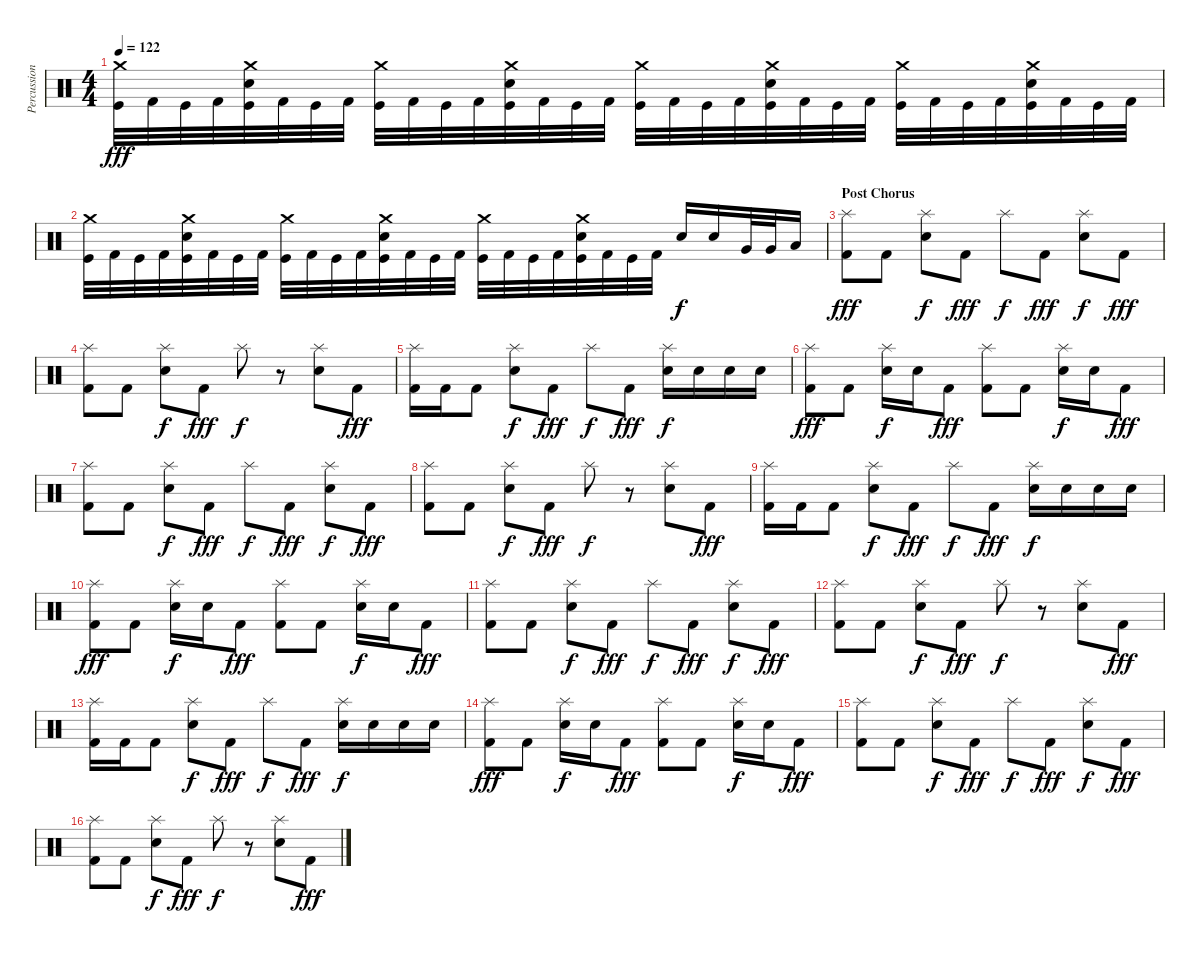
\track ("Percussion" "Percussion") {instrument percussion}
\staff {score}
\articulation defaults
\ts (4 4)
\tempo 122
\clef neutral
\ks c
("Crash medium (hit)" "Kick (hit)").32{dy fff} "Kick (hit) 2".32 "Kick (hit)".32 "Kick (hit) 2".32 ("Crash medium (hit)" "Snare (hit) 2" "Kick (hit)").32 "Kick (hit) 2".32 "Kick (hit)".32 "Kick (hit) 2".32 ("Crash medium (hit)" "Kick (hit)").32 "Kick (hit) 2".32 "Kick (hit)".32 "Kick (hit) 2".32 ("Crash medium (hit)" "Snare (hit) 2" "Kick (hit)").32 "Kick (hit) 2".32 "Kick (hit)".32 "Kick (hit) 2".32 ("Crash medium (hit)" "Kick (hit)").32 "Kick (hit) 2".32 "Kick (hit)".32 "Kick (hit) 2".32 ("Crash medium (hit)" "Snare (hit) 2" "Kick (hit)").32 "Kick (hit) 2".32 "Kick (hit)".32 "Kick (hit) 2".32 ("Crash medium (hit)" "Kick (hit)").32 "Kick (hit) 2".32 "Kick (hit)".32 "Kick (hit) 2".32 ("Crash medium (hit)" "Snare (hit) 2" "Kick (hit)").32 "Kick (hit) 2".32 "Kick (hit)".32 "Kick (hit) 2".32 |
("Crash medium (hit)" "Kick (hit)").32 "Kick (hit) 2".32 "Kick (hit)".32 "Kick (hit) 2".32 ("Crash medium (hit)" "Snare (hit) 2" "Kick (hit)").32 "Kick (hit) 2".32 "Kick (hit)".32 "Kick (hit) 2".32 ("Crash medium (hit)" "Kick (hit)").32 "Kick (hit) 2".32 "Kick (hit)".32 "Kick (hit) 2".32 ("Crash medium (hit)" "Snare (hit) 2" "Kick (hit)").32 "Kick (hit) 2".32 "Kick (hit)".32 "Kick (hit) 2".32 ("Crash medium (hit)" "Kick (hit)").32 "Kick (hit) 2".32 "Kick (hit)".32 "Kick (hit) 2".32 ("Crash medium (hit)" "Snare (hit) 2" "Kick (hit)").32 "Kick (hit) 2".32 "Kick (hit)".32 "Kick (hit) 2".32 "Snare (hit) 2".16{dy f} "Snare (hit) 2".16 "Very Low Tom (hit)".32 "Very Low Tom (hit)".32 "Low Floor Tom (hit)".16 |
\section ("" "Post Chorus")
("Splash (hit)" "Kick (hit) 2").8{dy fff volume 15} "Kick (hit) 2".8 ("Splash (hit)" "Snare (hit) 2").8{dy f} "Kick (hit) 2".8{dy fff} "Splash (hit)".8{dy f} "Kick (hit) 2".8{dy fff} ("Splash (hit)" "Snare (hit) 2").8{dy f} "Kick (hit) 2".8{dy fff} |
("Splash (hit)" "Kick (hit) 2").8 "Kick (hit) 2".8 ("Splash (hit)" "Snare (hit) 2").8{dy f} "Kick (hit) 2".8{dy fff} "Splash (hit)".8{dy f} r.8 ("Splash (hit)" "Snare (hit) 2").8 "Kick (hit) 2".8{dy fff} |
("Splash (hit)" "Kick (hit) 2").16 "Kick (hit) 2".16 "Kick (hit) 2".8 ("Splash (hit)" "Snare (hit) 2").8{dy f} "Kick (hit) 2".8{dy fff} "Splash (hit)".8{dy f} "Kick (hit) 2".8{dy fff} ("Splash (hit)" "Snare (hit) 2").16{dy f} "Snare (hit) 2".16 "Snare (hit) 2".16 "Snare (hit) 2".16 |
("Splash (hit)" "Kick (hit) 2").8{dy fff} "Kick (hit) 2".8 ("Splash (hit)" "Snare (hit) 2").16{dy f} "Snare (hit) 2".16 "Kick (hit) 2".8{dy fff} ("Splash (hit)" "Kick (hit) 2").8 "Kick (hit) 2".8 ("Splash (hit)" "Snare (hit) 2").16{dy f} "Snare (hit) 2".16 "Kick (hit) 2".8{dy fff} |
("Splash (hit)" "Kick (hit) 2").8{volume 15} "Kick (hit) 2".8 ("Splash (hit)" "Snare (hit) 2").8{dy f} "Kick (hit) 2".8{dy fff} "Splash (hit)".8{dy f} "Kick (hit) 2".8{dy fff} ("Splash (hit)" "Snare (hit) 2").8{dy f} "Kick (hit) 2".8{dy fff} |
("Splash (hit)" "Kick (hit) 2").8 "Kick (hit) 2".8 ("Splash (hit)" "Snare (hit) 2").8{dy f} "Kick (hit) 2".8{dy fff} "Splash (hit)".8{dy f} r.8 ("Splash (hit)" "Snare (hit) 2").8 "Kick (hit) 2".8{dy fff} |
("Splash (hit)" "Kick (hit) 2").16 "Kick (hit) 2".16 "Kick (hit) 2".8 ("Splash (hit)" "Snare (hit) 2").8{dy f} "Kick (hit) 2".8{dy fff} "Splash (hit)".8{dy f} "Kick (hit) 2".8{dy fff} ("Splash (hit)" "Snare (hit) 2").16{dy f} "Snare (hit) 2".16 "Snare (hit) 2".16 "Snare (hit) 2".16 |
("Splash (hit)" "Kick (hit) 2").8{dy fff} "Kick (hit) 2".8 ("Splash (hit)" "Snare (hit) 2").16{dy f} "Snare (hit) 2".16 "Kick (hit) 2".8{dy fff} ("Splash (hit)" "Kick (hit) 2").8 "Kick (hit) 2".8 ("Splash (hit)" "Snare (hit) 2").16{dy f} "Snare (hit) 2".16 "Kick (hit) 2".8{dy fff} |
("Splash (hit)" "Kick (hit) 2").8{volume 15} "Kick (hit) 2".8 ("Splash (hit)" "Snare (hit) 2").8{dy f} "Kick (hit) 2".8{dy fff} "Splash (hit)".8{dy f} "Kick (hit) 2".8{dy fff} ("Splash (hit)" "Snare (hit) 2").8{dy f} "Kick (hit) 2".8{dy fff} |
("Splash (hit)" "Kick (hit) 2").8 "Kick (hit) 2".8 ("Splash (hit)" "Snare (hit) 2").8{dy f} "Kick (hit) 2".8{dy fff} "Splash (hit)".8{dy f} r.8 ("Splash (hit)" "Snare (hit) 2").8 "Kick (hit) 2".8{dy fff} |
("Splash (hit)" "Kick (hit) 2").16 "Kick (hit) 2".16 "Kick (hit) 2".8 ("Splash (hit)" "Snare (hit) 2").8{dy f} "Kick (hit) 2".8{dy fff} "Splash (hit)".8{dy f} "Kick (hit) 2".8{dy fff} ("Splash (hit)" "Snare (hit) 2").16{dy f} "Snare (hit) 2".16 "Snare (hit) 2".16 "Snare (hit) 2".16 |
("Splash (hit)" "Kick (hit) 2").8{dy fff} "Kick (hit) 2".8 ("Splash (hit)" "Snare (hit) 2").16{dy f} "Snare (hit) 2".16 "Kick (hit) 2".8{dy fff} ("Splash (hit)" "Kick (hit) 2").8 "Kick (hit) 2".8 ("Splash (hit)" "Snare (hit) 2").16{dy f} "Snare (hit) 2".16 "Kick (hit) 2".8{dy fff} |
("Splash (hit)" "Kick (hit) 2").8{volume 15} "Kick (hit) 2".8 ("Splash (hit)" "Snare (hit) 2").8{dy f} "Kick (hit) 2".8{dy fff} "Splash (hit)".8{dy f} "Kick (hit) 2".8{dy fff} ("Splash (hit)" "Snare (hit) 2").8{dy f} "Kick (hit) 2".8{dy fff} |
("Splash (hit)" "Kick (hit) 2").8 "Kick (hit) 2".8 ("Splash (hit)" "Snare (hit) 2").8{dy f} "Kick (hit) 2".8{dy fff} "Splash (hit)".8{dy f} r.8 ("Splash (hit)" "Snare (hit) 2").8 "Kick (hit) 2".8{dy fff}
